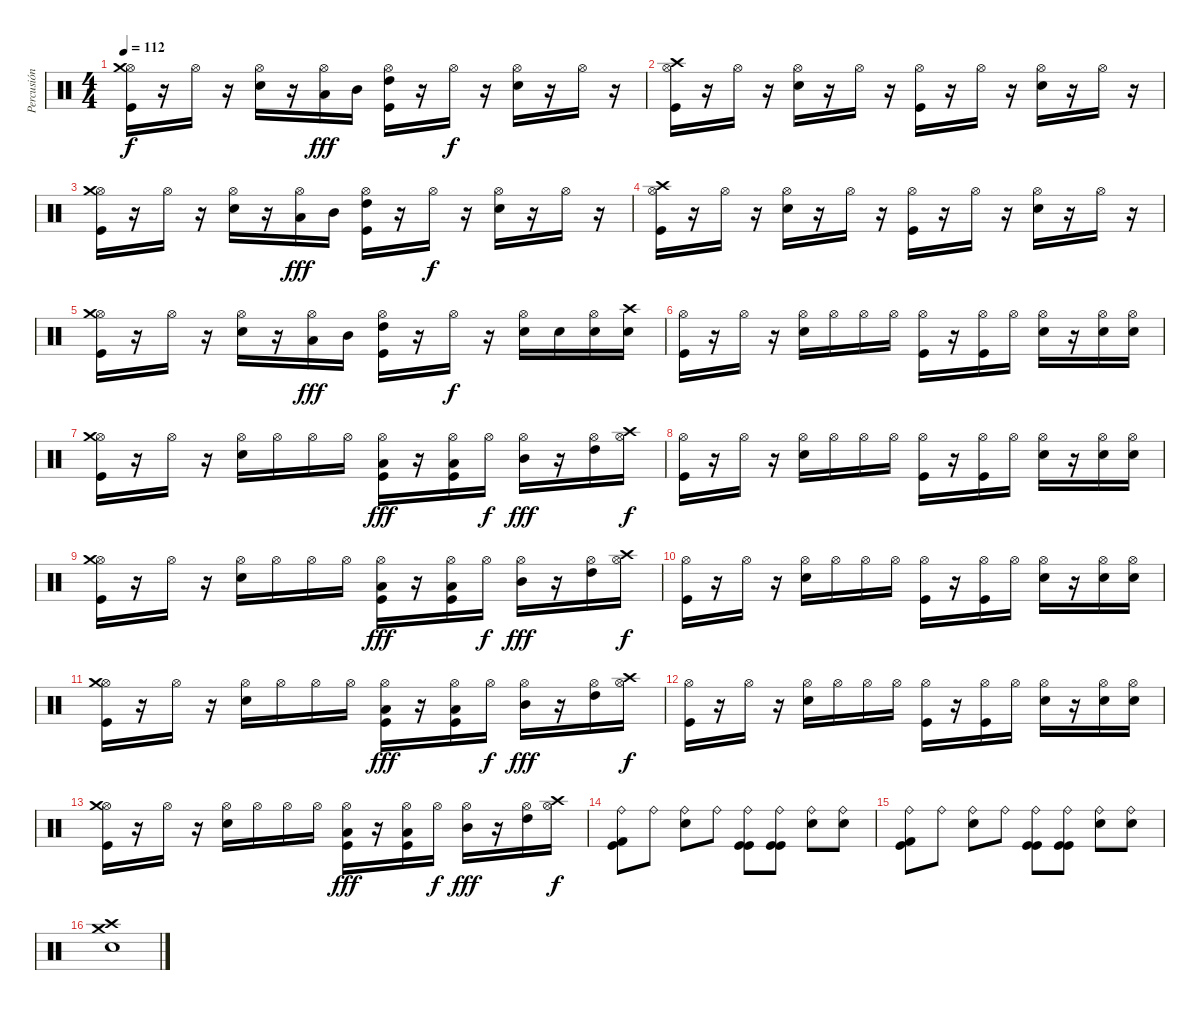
\track ("Percusión" "Percusión") {instrument percussion}
\staff {score}
\articulation defaults
\ts (4 4)
\tempo 112
\clef neutral
\ks c
("Hi-Hat (open)" "Crash medium (hit)" "Kick (hit)").16{dy f} r.16 "Hi-Hat (open)".16 r.16 ("Hi-Hat (open)" "Snare (hit) 2").16 r.16 ("Hi-Hat (open)" "Low Tom (hit)").16{dy fff} "Mid Tom (hit)".16 ("Hi-Hat (open)" "High Tom (hit)" "Kick (hit)").16 r.16 "Hi-Hat (open)".16{dy f} r.16 ("Hi-Hat (open)" "Snare (hit) 2").16 r.16 "Hi-Hat (open)".16 r.16 |
("Hi-Hat (open)" "Crash high (hit)" "Kick (hit)").16 r.16 "Hi-Hat (open)".16 r.16 ("Hi-Hat (open)" "Snare (hit) 2").16 r.16 "Hi-Hat (open)".16 r.16 ("Hi-Hat (open)" "Kick (hit)").16 r.16 "Hi-Hat (open)".16 r.16 ("Hi-Hat (open)" "Snare (hit) 2").16 r.16 "Hi-Hat (open)".16 r.16 |
("Hi-Hat (open)" "Crash medium (hit)" "Kick (hit)").16 r.16 "Hi-Hat (open)".16 r.16 ("Hi-Hat (open)" "Snare (hit) 2").16 r.16 ("Hi-Hat (open)" "Low Tom (hit)").16{dy fff} "Mid Tom (hit)".16 ("Hi-Hat (open)" "High Tom (hit)" "Kick (hit)").16 r.16 "Hi-Hat (open)".16{dy f} r.16 ("Hi-Hat (open)" "Snare (hit) 2").16 r.16 "Hi-Hat (open)".16 r.16 |
("Hi-Hat (open)" "Crash high (hit)" "Kick (hit)").16 r.16 "Hi-Hat (open)".16 r.16 ("Hi-Hat (open)" "Snare (hit) 2").16 r.16 "Hi-Hat (open)".16 r.16 ("Hi-Hat (open)" "Kick (hit)").16 r.16 "Hi-Hat (open)".16 r.16 ("Hi-Hat (open)" "Snare (hit) 2").16 r.16 "Hi-Hat (open)".16 r.16 |
("Hi-Hat (open)" "Crash medium (hit)" "Kick (hit)").16 r.16 "Hi-Hat (open)".16 r.16 ("Hi-Hat (open)" "Snare (hit) 2").16 r.16 ("Hi-Hat (open)" "Low Tom (hit)").16{dy fff} "Mid Tom (hit)".16 ("Hi-Hat (open)" "High Tom (hit)" "Kick (hit)").16 r.16 "Hi-Hat (open)".16{dy f} r.16 ("Hi-Hat (open)" "Snare (hit) 2").16 "Snare (hit) 2".16 ("Hi-Hat (open)" "Snare (hit) 2").16 ("Crash high (hit)" "Snare (hit) 2").16 |
("Hi-Hat (open)" "Kick (hit)").16 r.16 "Hi-Hat (open)".16 r.16 ("Hi-Hat (open)" "Snare (hit) 2").16 "Hi-Hat (open)".16 "Hi-Hat (open)".16 "Hi-Hat (open)".16 ("Hi-Hat (open)" "Kick (hit)").16 r.16 ("Hi-Hat (open)" "Kick (hit)").16 "Hi-Hat (open)".16 ("Hi-Hat (open)" "Snare (hit) 2").16 r.16 ("Hi-Hat (open)" "Snare (hit) 2").16 ("Hi-Hat (open)" "Snare (hit) 2").16 |
("Hi-Hat (open)" "Crash medium (hit)" "Kick (hit)").16 r.16 "Hi-Hat (open)".16 r.16 ("Hi-Hat (open)" "Snare (hit) 2").16 "Hi-Hat (open)".16 "Hi-Hat (open)".16 "Hi-Hat (open)".16 ("Hi-Hat (open)" "Low Tom (hit)" "Kick (hit)").16{dy fff} r.16 ("Hi-Hat (open)" "Low Tom (hit)" "Kick (hit)").16 "Hi-Hat (open)".16{dy f} ("Hi-Hat (open)" "Mid Tom (hit)").16{dy fff} r.16 ("Hi-Hat (open)" "High Tom (hit)").16 ("Hi-Hat (open)" "Crash high (hit)").16{dy f} |
("Hi-Hat (open)" "Kick (hit)").16 r.16 "Hi-Hat (open)".16 r.16 ("Hi-Hat (open)" "Snare (hit) 2").16 "Hi-Hat (open)".16 "Hi-Hat (open)".16 "Hi-Hat (open)".16 ("Hi-Hat (open)" "Kick (hit)").16 r.16 ("Hi-Hat (open)" "Kick (hit)").16 "Hi-Hat (open)".16 ("Hi-Hat (open)" "Snare (hit) 2").16 r.16 ("Hi-Hat (open)" "Snare (hit) 2").16 ("Hi-Hat (open)" "Snare (hit) 2").16 |
("Hi-Hat (open)" "Crash medium (hit)" "Kick (hit)").16 r.16 "Hi-Hat (open)".16 r.16 ("Hi-Hat (open)" "Snare (hit) 2").16 "Hi-Hat (open)".16 "Hi-Hat (open)".16 "Hi-Hat (open)".16 ("Hi-Hat (open)" "Low Tom (hit)" "Kick (hit)").16{dy fff} r.16 ("Hi-Hat (open)" "Low Tom (hit)" "Kick (hit)").16 "Hi-Hat (open)".16{dy f} ("Hi-Hat (open)" "Mid Tom (hit)").16{dy fff} r.16 ("Hi-Hat (open)" "High Tom (hit)").16 ("Hi-Hat (open)" "Crash high (hit)").16{dy f} |
("Hi-Hat (open)" "Kick (hit)").16 r.16 "Hi-Hat (open)".16 r.16 ("Hi-Hat (open)" "Snare (hit) 2").16 "Hi-Hat (open)".16 "Hi-Hat (open)".16 "Hi-Hat (open)".16 ("Hi-Hat (open)" "Kick (hit)").16 r.16 ("Hi-Hat (open)" "Kick (hit)").16 "Hi-Hat (open)".16 ("Hi-Hat (open)" "Snare (hit) 2").16 r.16 ("Hi-Hat (open)" "Snare (hit) 2").16 ("Hi-Hat (open)" "Snare (hit) 2").16 |
("Hi-Hat (open)" "Crash medium (hit)" "Kick (hit)").16 r.16 "Hi-Hat (open)".16 r.16 ("Hi-Hat (open)" "Snare (hit) 2").16 "Hi-Hat (open)".16 "Hi-Hat (open)".16 "Hi-Hat (open)".16 ("Hi-Hat (open)" "Low Tom (hit)" "Kick (hit)").16{dy fff} r.16 ("Hi-Hat (open)" "Low Tom (hit)" "Kick (hit)").16 "Hi-Hat (open)".16{dy f} ("Hi-Hat (open)" "Mid Tom (hit)").16{dy fff} r.16 ("Hi-Hat (open)" "High Tom (hit)").16 ("Hi-Hat (open)" "Crash high (hit)").16{dy f} |
("Hi-Hat (open)" "Kick (hit)").16 r.16 "Hi-Hat (open)".16 r.16 ("Hi-Hat (open)" "Snare (hit) 2").16 "Hi-Hat (open)".16 "Hi-Hat (open)".16 "Hi-Hat (open)".16 ("Hi-Hat (open)" "Kick (hit)").16 r.16 ("Hi-Hat (open)" "Kick (hit)").16 "Hi-Hat (open)".16 ("Hi-Hat (open)" "Snare (hit) 2").16 r.16 ("Hi-Hat (open)" "Snare (hit) 2").16 ("Hi-Hat (open)" "Snare (hit) 2").16 |
("Hi-Hat (open)" "Crash medium (hit)" "Kick (hit)").16 r.16 "Hi-Hat (open)".16 r.16 ("Hi-Hat (open)" "Snare (hit) 2").16 "Hi-Hat (open)".16 "Hi-Hat (open)".16 "Hi-Hat (open)".16 ("Hi-Hat (open)" "Low Tom (hit)" "Kick (hit)").16{dy fff} r.16 ("Hi-Hat (open)" "Low Tom (hit)" "Kick (hit)").16 "Hi-Hat (open)".16{dy f} ("Hi-Hat (open)" "Mid Tom (hit)").16{dy fff} r.16 ("Hi-Hat (open)" "High Tom (hit)").16 ("Hi-Hat (open)" "Crash high (hit)").16{dy f} |
("Ride (bell)" "Kick (hit) 2" "Kick (hit)").8 "Ride (bell)".8 ("Ride (bell)" "Snare (hit) 2").8 "Ride (bell)".8 ("Ride (bell)" "Kick (hit)" "Kick (hit)").8 ("Ride (bell)" "Kick (hit)" "Kick (hit)").8 ("Ride (bell)" "Snare (hit) 2").8 ("Ride (bell)" "Snare (hit) 2").8 |
("Ride (bell)" "Kick (hit) 2" "Kick (hit)").8 "Ride (bell)".8 ("Ride (bell)" "Snare (hit) 2").8 "Ride (bell)".8 ("Ride (bell)" "Kick (hit)" "Kick (hit)").8 ("Ride (bell)" "Kick (hit)" "Kick (hit)").8 ("Ride (bell)" "Snare (hit) 2").8 ("Ride (bell)" "Snare (hit) 2").8 |
("Crash high (hit)" "Crash medium (hit)" "Snare (hit) 2").1
